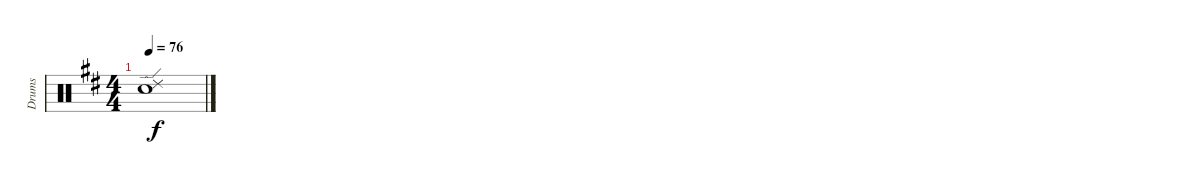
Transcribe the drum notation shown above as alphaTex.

\track ("Drums" "Drums") {instrument percussion}
\staff {score}
\articulation defaults
\ts (4 4)
\tempo 76
\clef neutral
\ks d
("Ride (edge) 2" "Snare (hit) 2").1{dy f}
